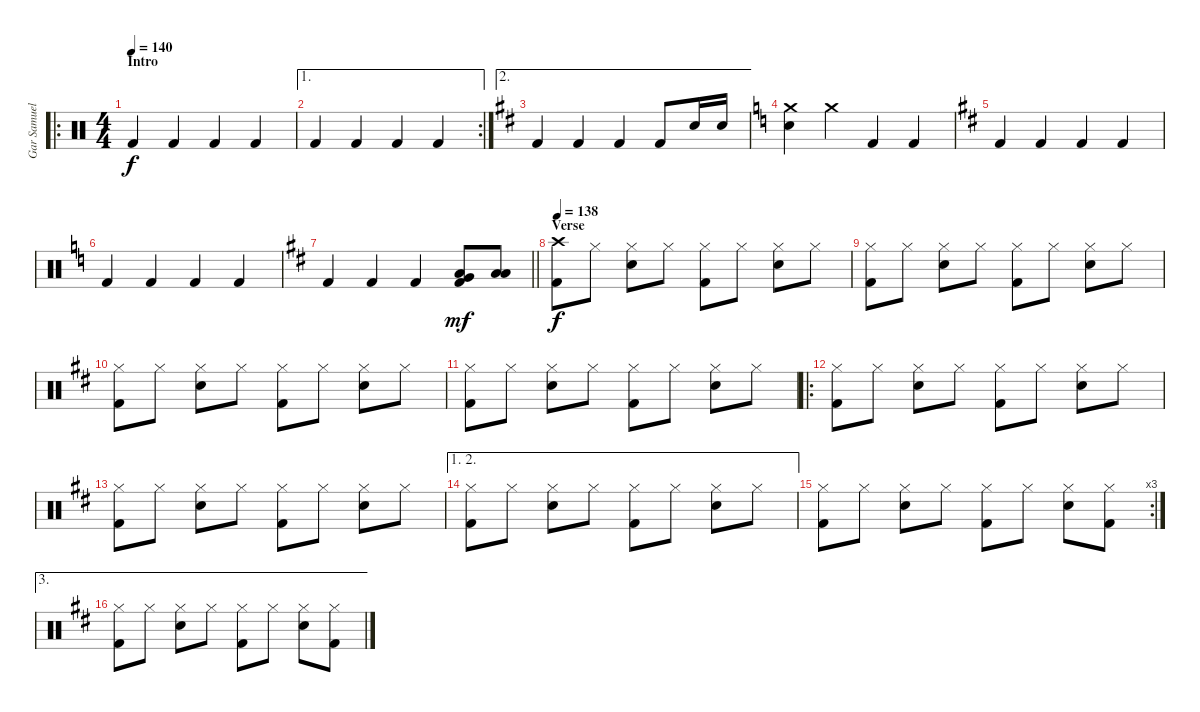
\track ("Gar Samuelson" "Gar Samuel") {instrument percussion}
\staff {score}
\articulation defaults
\ro
\ts (4 4)
\section ("" "Intro")
\tempo 140
\clef neutral
\ks c "Kick (hit) 2".4{dy f} "Kick (hit) 2".4 "Kick (hit) 2".4 "Kick (hit) 2".4
|
\ae 1
\rc 2 "Kick (hit) 2".4 "Kick (hit) 2".4 "Kick (hit) 2".4 "Kick (hit) 2".4
|
\ae 2
\ks d "Kick (hit) 2".4 "Kick (hit) 2".4 "Kick (hit) 2".4 "Kick (hit) 2".8 "Snare (hit) 2".16 "Snare (hit) 2".16
|
\ks c
("Crash medium (hit)" "Snare (hit) 2").4 "Crash medium (hit)".4 "Kick (hit) 2".4 "Kick (hit) 2".4 |
\ks d "Kick (hit) 2".4 "Kick (hit) 2".4 "Kick (hit) 2".4 "Kick (hit) 2".4
|
\ks c "Kick (hit) 2".4 "Kick (hit) 2".4 "Kick (hit) 2".4 "Kick (hit) 2".4
|
\barLineRight lightlight
\ks d "Kick (hit) 2".4 "Kick (hit) 2".4 "Kick (hit) 2".4
("Low Tom (hit)" "Very Low Tom (hit)" "Kick (hit) 2").8{dy mf} ("Low Floor Tom (hit)" "Low Tom (hit)").8 |
\section ("" "Verse")
\tempo 138
("Crash high (hit)" "Kick (hit) 2").8{dy f} "Hi-Hat (closed)".8 ("Hi-Hat (closed)" "Snare (hit) 2").8 "Hi-Hat (closed)".8 ("Hi-Hat (closed)" "Kick (hit) 2").8 "Hi-Hat (closed)".8 ("Hi-Hat (closed)" "Snare (hit) 2").8 "Hi-Hat (closed)".8 |
("Hi-Hat (closed)" "Kick (hit) 2").8 "Hi-Hat (closed)".8 ("Hi-Hat (closed)" "Snare (hit) 2").8 "Hi-Hat (closed)".8 ("Hi-Hat (closed)" "Kick (hit) 2").8 "Hi-Hat (closed)".8 ("Hi-Hat (closed)" "Snare (hit) 2").8 "Hi-Hat (closed)".8 |
("Hi-Hat (closed)" "Kick (hit) 2").8 "Hi-Hat (closed)".8 ("Hi-Hat (closed)" "Snare (hit) 2").8 "Hi-Hat (closed)".8 ("Hi-Hat (closed)" "Kick (hit) 2").8 "Hi-Hat (closed)".8 ("Hi-Hat (closed)" "Snare (hit) 2").8 "Hi-Hat (closed)".8 |
("Hi-Hat (closed)" "Kick (hit) 2").8 "Hi-Hat (closed)".8 ("Hi-Hat (closed)" "Snare (hit) 2").8 "Hi-Hat (closed)".8 ("Hi-Hat (closed)" "Kick (hit) 2").8 "Hi-Hat (closed)".8 ("Hi-Hat (closed)" "Snare (hit) 2").8 "Hi-Hat (closed)".8 |
\ro
("Hi-Hat (closed)" "Kick (hit) 2").8 "Hi-Hat (closed)".8 ("Hi-Hat (closed)" "Snare (hit) 2").8 "Hi-Hat (closed)".8 ("Hi-Hat (closed)" "Kick (hit) 2").8 "Hi-Hat (closed)".8 ("Hi-Hat (closed)" "Snare (hit) 2").8 "Hi-Hat (closed)".8 |
("Hi-Hat (closed)" "Kick (hit) 2").8 "Hi-Hat (closed)".8 ("Hi-Hat (closed)" "Snare (hit) 2").8 "Hi-Hat (closed)".8 ("Hi-Hat (closed)" "Kick (hit) 2").8 "Hi-Hat (closed)".8 ("Hi-Hat (closed)" "Snare (hit) 2").8 "Hi-Hat (closed)".8 |
\ae (1 2)
("Hi-Hat (closed)" "Kick (hit) 2").8 "Hi-Hat (closed)".8 ("Hi-Hat (closed)" "Snare (hit) 2").8 "Hi-Hat (closed)".8 ("Hi-Hat (closed)" "Kick (hit) 2").8 "Hi-Hat (closed)".8 ("Hi-Hat (closed)" "Snare (hit) 2").8 "Hi-Hat (closed)".8 |
\rc 3
("Hi-Hat (closed)" "Kick (hit) 2").8 "Hi-Hat (closed)".8 ("Hi-Hat (closed)" "Snare (hit) 2").8 "Hi-Hat (closed)".8 ("Hi-Hat (closed)" "Kick (hit) 2").8 "Hi-Hat (closed)".8 ("Hi-Hat (closed)" "Snare (hit) 2").8 ("Hi-Hat (closed)" "Kick (hit) 2").8 |
\ae 3
("Hi-Hat (closed)" "Kick (hit) 2").8 "Hi-Hat (closed)".8 ("Hi-Hat (closed)" "Snare (hit) 2").8 "Hi-Hat (closed)".8 ("Hi-Hat (closed)" "Kick (hit) 2").8 "Hi-Hat (closed)".8 ("Hi-Hat (closed)" "Snare (hit) 2").8 ("Hi-Hat (closed)" "Kick (hit) 2").8
